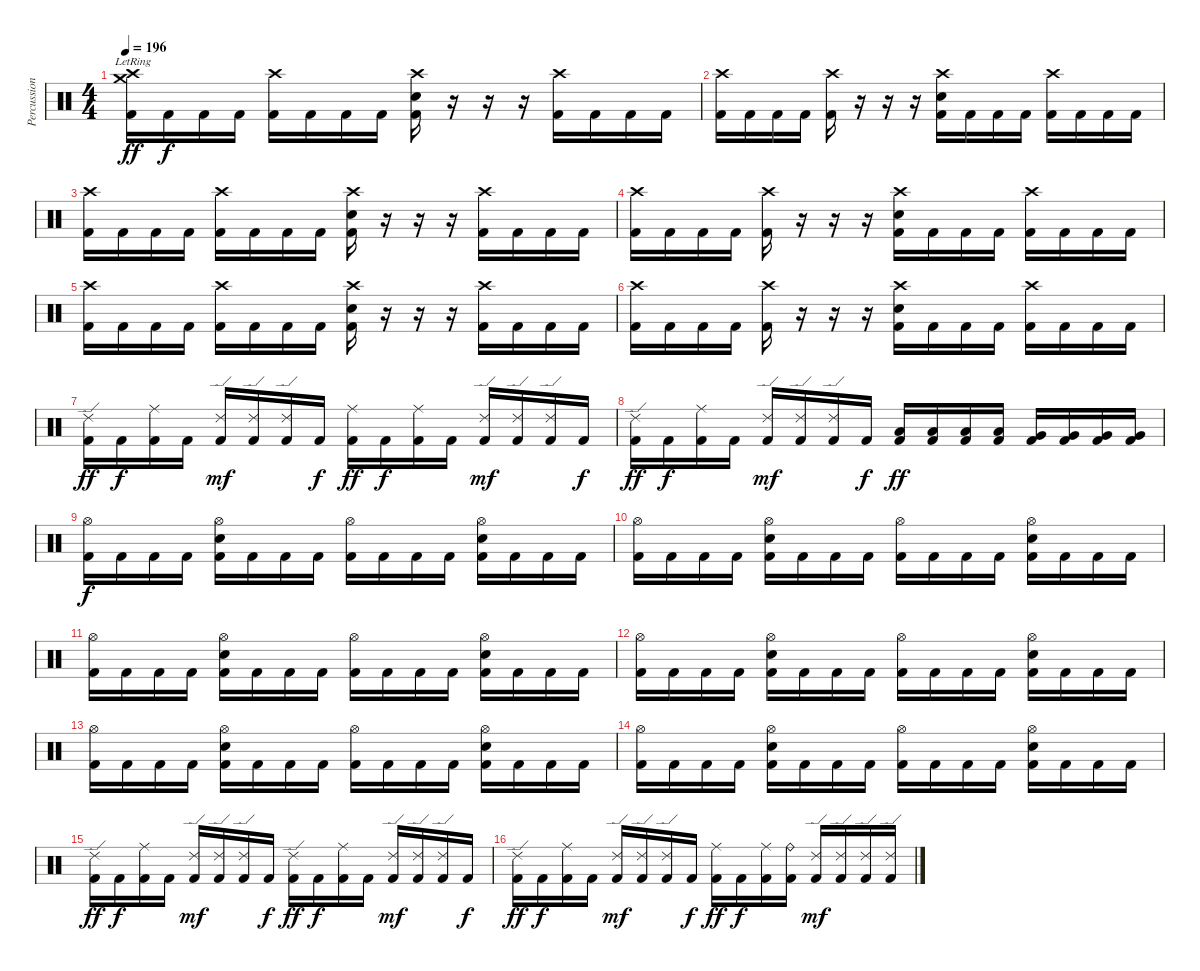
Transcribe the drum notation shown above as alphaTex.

\track ("Percussions" "Percussion") {instrument percussion}
\staff {score}
\articulation defaults
\ts (4 4)
\tempo 196
\clef neutral
\ks c
("Crash medium (hit)"{lr} "Crash high (hit)" "Kick (hit) 2").16{dy ff} "Kick (hit) 2".16{dy f} "Kick (hit) 2".16 "Kick (hit) 2".16 ("Crash high (hit)" "Kick (hit) 2").16 "Kick (hit) 2".16 "Kick (hit) 2".16 "Kick (hit) 2".16 ("Crash high (hit)" "Electric Snare (hit)" "Kick (hit) 2").16 r.16 r.16 r.16 ("Crash high (hit)" "Kick (hit) 2").16 "Kick (hit) 2".16 "Kick (hit) 2".16 "Kick (hit) 2".16 |
("Crash high (hit)" "Kick (hit) 2").16 "Kick (hit) 2".16 "Kick (hit) 2".16 "Kick (hit) 2".16 ("Crash high (hit)" "Kick (hit) 2").16 r.16 r.16 r.16 ("Crash high (hit)" "Electric Snare (hit)" "Kick (hit) 2").16 "Kick (hit) 2".16 "Kick (hit) 2".16 "Kick (hit) 2".16 ("Crash high (hit)" "Kick (hit) 2").16 "Kick (hit) 2".16 "Kick (hit) 2".16 "Kick (hit) 2".16 |
("Crash high (hit)" "Kick (hit) 2").16 "Kick (hit) 2".16 "Kick (hit) 2".16 "Kick (hit) 2".16 ("Crash high (hit)" "Kick (hit) 2").16 "Kick (hit) 2".16 "Kick (hit) 2".16 "Kick (hit) 2".16 ("Crash high (hit)" "Electric Snare (hit)" "Kick (hit) 2").16 r.16 r.16 r.16 ("Crash high (hit)" "Kick (hit) 2").16 "Kick (hit) 2".16 "Kick (hit) 2".16 "Kick (hit) 2".16 |
("Crash high (hit)" "Kick (hit) 2").16 "Kick (hit) 2".16 "Kick (hit) 2".16 "Kick (hit) 2".16 ("Crash high (hit)" "Kick (hit) 2").16 r.16 r.16 r.16 ("Crash high (hit)" "Electric Snare (hit)" "Kick (hit) 2").16 "Kick (hit) 2".16 "Kick (hit) 2".16 "Kick (hit) 2".16 ("Crash high (hit)" "Kick (hit) 2").16 "Kick (hit) 2".16 "Kick (hit) 2".16 "Kick (hit) 2".16 |
("Crash high (hit)" "Kick (hit) 2").16 "Kick (hit) 2".16 "Kick (hit) 2".16 "Kick (hit) 2".16 ("Crash high (hit)" "Kick (hit) 2").16 "Kick (hit) 2".16 "Kick (hit) 2".16 "Kick (hit) 2".16 ("Crash high (hit)" "Electric Snare (hit)" "Kick (hit) 2").16 r.16 r.16 r.16 ("Crash high (hit)" "Kick (hit) 2").16 "Kick (hit) 2".16 "Kick (hit) 2".16 "Kick (hit) 2".16 |
("Crash high (hit)" "Kick (hit) 2").16 "Kick (hit) 2".16 "Kick (hit) 2".16 "Kick (hit) 2".16 ("Crash high (hit)" "Kick (hit) 2").16 r.16 r.16 r.16 ("Crash high (hit)" "Electric Snare (hit)" "Kick (hit) 2").16 "Kick (hit) 2".16 "Kick (hit) 2".16 "Kick (hit) 2".16 ("Crash high (hit)" "Kick (hit) 2").16 "Kick (hit) 2".16 "Kick (hit) 2".16 "Kick (hit) 2".16 |
("Ride (edge) 2" "Kick (hit) 2").16{dy ff} "Kick (hit) 2".16{dy f} ("Ride (middle)" "Kick (hit) 2").16 "Kick (hit) 2".16 ("Ride (edge) 2" "Kick (hit) 2").16{dy mf} ("Ride (edge) 2" "Kick (hit) 2").16 ("Ride (edge) 2" "Kick (hit) 2").16 "Kick (hit) 2".16{dy f} ("Ride (middle)" "Kick (hit) 2").16{dy ff} "Kick (hit) 2".16{dy f} ("Ride (middle)" "Kick (hit) 2").16 "Kick (hit) 2".16 ("Ride (edge) 2" "Kick (hit) 2").16{dy mf} ("Ride (edge) 2" "Kick (hit) 2").16 ("Ride (edge) 2" "Kick (hit) 2").16 "Kick (hit) 2".16{dy f} |
("Ride (edge) 2" "Kick (hit) 2").16{dy ff} "Kick (hit) 2".16{dy f} ("Ride (middle)" "Kick (hit) 2").16 "Kick (hit) 2".16 ("Ride (edge) 2" "Kick (hit) 2").16{dy mf} ("Ride (edge) 2" "Kick (hit) 2").16 ("Ride (edge) 2" "Kick (hit) 2").16 "Kick (hit) 2".16{dy f} ("Low Tom (hit)" "Kick (hit) 2").16{dy ff} ("Low Tom (hit)" "Kick (hit) 2").16 ("Low Tom (hit)" "Kick (hit) 2").16 ("Low Tom (hit)" "Kick (hit) 2").16 ("Very Low Tom (hit)" "Kick (hit) 2").16 ("Very Low Tom (hit)" "Kick (hit) 2").16 ("Very Low Tom (hit)" "Kick (hit) 2").16 ("Very Low Tom (hit)" "Kick (hit) 2").16 |
("Hi-Hat (open)" "Kick (hit) 2").16{dy f} "Kick (hit) 2".16 "Kick (hit) 2".16 "Kick (hit) 2".16 ("Hi-Hat (open)" "Electric Snare (hit)" "Kick (hit) 2").16 "Kick (hit) 2".16 "Kick (hit) 2".16 "Kick (hit) 2".16 ("Hi-Hat (open)" "Kick (hit) 2").16 "Kick (hit) 2".16 "Kick (hit) 2".16 "Kick (hit) 2".16 ("Hi-Hat (open)" "Electric Snare (hit)" "Kick (hit) 2").16 "Kick (hit) 2".16 "Kick (hit) 2".16 "Kick (hit) 2".16 |
("Hi-Hat (open)" "Kick (hit) 2").16 "Kick (hit) 2".16 "Kick (hit) 2".16 "Kick (hit) 2".16 ("Hi-Hat (open)" "Electric Snare (hit)" "Kick (hit) 2").16 "Kick (hit) 2".16 "Kick (hit) 2".16 "Kick (hit) 2".16 ("Hi-Hat (open)" "Kick (hit) 2").16 "Kick (hit) 2".16 "Kick (hit) 2".16 "Kick (hit) 2".16 ("Hi-Hat (open)" "Electric Snare (hit)" "Kick (hit) 2").16 "Kick (hit) 2".16 "Kick (hit) 2".16 "Kick (hit) 2".16 |
("Hi-Hat (open)" "Kick (hit) 2").16 "Kick (hit) 2".16 "Kick (hit) 2".16 "Kick (hit) 2".16 ("Hi-Hat (open)" "Electric Snare (hit)" "Kick (hit) 2").16 "Kick (hit) 2".16 "Kick (hit) 2".16 "Kick (hit) 2".16 ("Hi-Hat (open)" "Kick (hit) 2").16 "Kick (hit) 2".16 "Kick (hit) 2".16 "Kick (hit) 2".16 ("Hi-Hat (open)" "Electric Snare (hit)" "Kick (hit) 2").16 "Kick (hit) 2".16 "Kick (hit) 2".16 "Kick (hit) 2".16 |
("Hi-Hat (open)" "Kick (hit) 2").16 "Kick (hit) 2".16 "Kick (hit) 2".16 "Kick (hit) 2".16 ("Hi-Hat (open)" "Electric Snare (hit)" "Kick (hit) 2").16 "Kick (hit) 2".16 "Kick (hit) 2".16 "Kick (hit) 2".16 ("Hi-Hat (open)" "Kick (hit) 2").16 "Kick (hit) 2".16 "Kick (hit) 2".16 "Kick (hit) 2".16 ("Hi-Hat (open)" "Electric Snare (hit)" "Kick (hit) 2").16 "Kick (hit) 2".16 "Kick (hit) 2".16 "Kick (hit) 2".16 |
("Hi-Hat (open)" "Kick (hit) 2").16 "Kick (hit) 2".16 "Kick (hit) 2".16 "Kick (hit) 2".16 ("Hi-Hat (open)" "Electric Snare (hit)" "Kick (hit) 2").16 "Kick (hit) 2".16 "Kick (hit) 2".16 "Kick (hit) 2".16 ("Hi-Hat (open)" "Kick (hit) 2").16 "Kick (hit) 2".16 "Kick (hit) 2".16 "Kick (hit) 2".16 ("Hi-Hat (open)" "Electric Snare (hit)" "Kick (hit) 2").16 "Kick (hit) 2".16 "Kick (hit) 2".16 "Kick (hit) 2".16 |
("Hi-Hat (open)" "Kick (hit) 2").16 "Kick (hit) 2".16 "Kick (hit) 2".16 "Kick (hit) 2".16 ("Hi-Hat (open)" "Electric Snare (hit)" "Kick (hit) 2").16 "Kick (hit) 2".16 "Kick (hit) 2".16 "Kick (hit) 2".16 ("Hi-Hat (open)" "Kick (hit) 2").16 "Kick (hit) 2".16 "Kick (hit) 2".16 "Kick (hit) 2".16 ("Hi-Hat (open)" "Electric Snare (hit)" "Kick (hit) 2").16 "Kick (hit) 2".16 "Kick (hit) 2".16 "Kick (hit) 2".16 |
("Ride (edge) 2" "Kick (hit) 2").16{dy ff} "Kick (hit) 2".16{dy f} ("Ride (middle)" "Kick (hit) 2").16 "Kick (hit) 2".16 ("Ride (edge) 2" "Kick (hit) 2").16{dy mf} ("Ride (edge) 2" "Kick (hit) 2").16 ("Ride (edge) 2" "Kick (hit) 2").16 "Kick (hit) 2".16{dy f} ("Ride (edge) 2" "Kick (hit) 2").16{dy ff} "Kick (hit) 2".16{dy f} ("Ride (middle)" "Kick (hit) 2").16 "Kick (hit) 2".16 ("Ride (edge) 2" "Kick (hit) 2").16{dy mf} ("Ride (edge) 2" "Kick (hit) 2").16 ("Ride (edge) 2" "Kick (hit) 2").16 "Kick (hit) 2".16{dy f} |
("Ride (edge) 2" "Kick (hit) 2").16{dy ff} "Kick (hit) 2".16{dy f} ("Ride (middle)" "Kick (hit) 2").16 "Kick (hit) 2".16 ("Ride (edge) 2" "Kick (hit) 2").16{dy mf} ("Ride (edge) 2" "Kick (hit) 2").16 ("Ride (edge) 2" "Kick (hit) 2").16 "Kick (hit) 2".16{dy f} ("Ride (middle)" "Kick (hit) 2").16{dy ff} "Kick (hit) 2".16{dy f} ("Ride (middle)" "Kick (hit) 2").16 ("Ride (bell)" "Kick (hit) 2").16 ("Ride (edge) 2" "Kick (hit) 2").16{dy mf} ("Ride (edge) 2" "Kick (hit) 2").16 ("Ride (edge) 2" "Kick (hit) 2").16 ("Ride (edge) 2" "Kick (hit) 2").16
